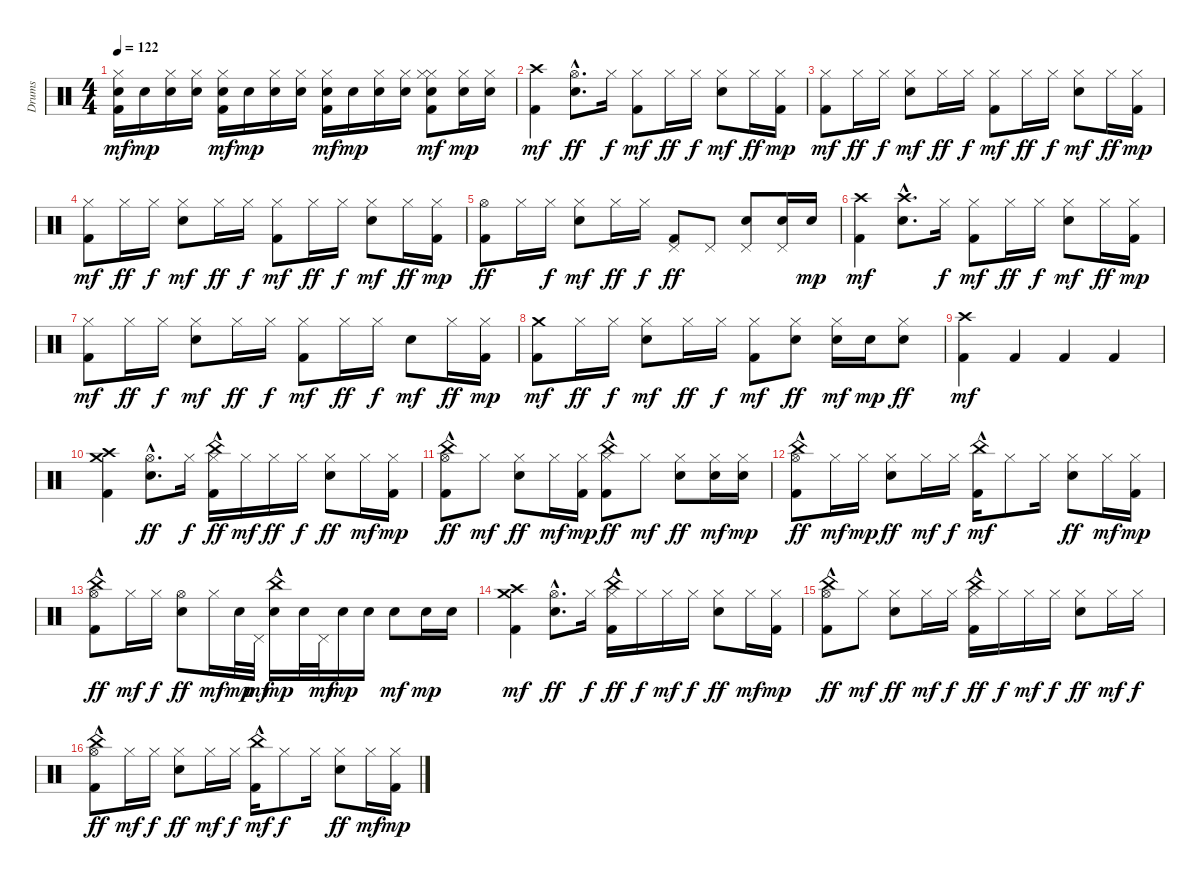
\track ("Drums" "Drums") {instrument percussion}
\staff {score}
\articulation defaults
\ts (4 4)
\tempo 122
\clef neutral
\ks c
("Hi-Hat (closed)" "Snare (hit) 2" "Kick (hit) 2").16{dy mf} "Snare (hit) 2".16{dy mp} ("Snare (hit) 2" "Hi-Hat (closed)").16 ("Hi-Hat (closed)" "Snare (hit) 2").16 ("Hi-Hat (closed)" "Snare (hit) 2" "Kick (hit) 2").16{dy mf} "Snare (hit) 2".16{dy mp} ("Snare (hit) 2" "Hi-Hat (closed)").16 ("Hi-Hat (closed)" "Snare (hit) 2").16 ("Snare (hit) 2" "Hi-Hat (closed)" "Kick (hit) 2").16{dy mf} "Snare (hit) 2".16{dy mp} ("Snare (hit) 2" "Hi-Hat (closed)").16 ("Hi-Hat (closed)" "Snare (hit) 2").16 ("Snare (hit) 2" "Hi-Hat (closed)" "Hi-Hat (closed)" "Kick (hit) 2").8{dy mf} ("Snare (hit) 2" "Hi-Hat (closed)").16{dy mp} ("Hi-Hat (closed)" "Snare (hit) 2").16 |
("Kick (hit) 2" "Crash high (hit)").4{dy mf} ("Snare (hit) 2"{hac} "Hi-Hat (open)"{hac}).8{d dy ff} "Hi-Hat (closed)".16{dy f} ("Kick (hit) 2" "Hi-Hat (closed)").8{dy mf} "Hi-Hat (closed)".16{dy ff} "Hi-Hat (closed)".16{dy f} ("Snare (hit) 2" "Hi-Hat (closed)").8{dy mf} "Hi-Hat (closed)".16{dy ff} ("Kick (hit) 2" "Hi-Hat (closed)").16{dy mp} |
("Kick (hit) 2" "Hi-Hat (closed)").8{dy mf} "Hi-Hat (closed)".16{dy ff} "Hi-Hat (closed)".16{dy f} ("Snare (hit) 2" "Hi-Hat (closed)").8{dy mf} "Hi-Hat (closed)".16{dy ff} "Hi-Hat (closed)".16{dy f} ("Kick (hit) 2" "Hi-Hat (closed)").8{dy mf} "Hi-Hat (closed)".16{dy ff} "Hi-Hat (closed)".16{dy f} ("Snare (hit) 2" "Hi-Hat (closed)").8{dy mf} "Hi-Hat (closed)".16{dy ff} ("Kick (hit) 2" "Hi-Hat (closed)").16{dy mp} |
("Kick (hit) 2" "Hi-Hat (closed)").8{dy mf} "Hi-Hat (closed)".16{dy ff} "Hi-Hat (closed)".16{dy f} ("Snare (hit) 2" "Hi-Hat (closed)").8{dy mf} "Hi-Hat (closed)".16{dy ff} "Hi-Hat (closed)".16{dy f} ("Kick (hit) 2" "Hi-Hat (closed)").8{dy mf} "Hi-Hat (closed)".16{dy ff} "Hi-Hat (closed)".16{dy f} ("Snare (hit) 2" "Hi-Hat (closed)").8{dy mf} "Hi-Hat (closed)".16{dy ff} ("Hi-Hat (closed)" "Kick (hit) 2").16{dy mp} |
("Kick (hit) 2" "Hi-Hat (open)").8{dy ff} "Hi-Hat (closed)".16 "Hi-Hat (closed)".16{dy f} ("Snare (hit) 2" "Hi-Hat (closed)").8{dy mf} "Hi-Hat (closed)".16{dy ff} "Hi-Hat (closed)".16{dy f} ("Kick (hit) 2" "Pedal Hi-Hat (hit)").8{dy ff} "Pedal Hi-Hat (hit)".8 ("Snare (hit) 2" "Pedal Hi-Hat (hit)").8 ("Snare (hit) 2" "Pedal Hi-Hat (hit)").16 "Snare (hit) 2".16{dy mp} |
("Kick (hit) 2" "Crash high (hit)").4{dy mf} ("Snare (hit) 2" "Crash high (hit)"{hac}).8{d} "Hi-Hat (closed)".16{dy f} ("Kick (hit) 2" "Hi-Hat (closed)").8{dy mf} "Hi-Hat (closed)".16{dy ff} "Hi-Hat (closed)".16{dy f} ("Snare (hit) 2" "Hi-Hat (closed)").8{dy mf} "Hi-Hat (closed)".16{dy ff} ("Kick (hit) 2" "Hi-Hat (closed)").16{dy mp} |
("Kick (hit) 2" "Hi-Hat (closed)").8{dy mf} "Hi-Hat (closed)".16{dy ff} "Hi-Hat (closed)".16{dy f} ("Snare (hit) 2" "Hi-Hat (closed)").8{dy mf} "Hi-Hat (closed)".16{dy ff} "Hi-Hat (closed)".16{dy f} ("Kick (hit) 2" "Hi-Hat (closed)").8{dy mf} "Hi-Hat (closed)".16{dy ff} "Hi-Hat (closed)".16{dy f} "Snare (hit) 2".8{dy mf} "Hi-Hat (closed)".16{dy ff} ("Kick (hit) 2" "Hi-Hat (closed)").16{dy mp} |
("Kick (hit) 2" "Crash medium (hit)").8{dy mf} "Hi-Hat (closed)".16{dy ff} "Hi-Hat (closed)".16{dy f} ("Snare (hit) 2" "Hi-Hat (closed)").8{dy mf} "Hi-Hat (closed)".16{dy ff} "Hi-Hat (closed)".16{dy f} ("Kick (hit) 2" "Hi-Hat (closed)").8{dy mf} ("Snare (hit) 2" "Hi-Hat (closed)").8{dy ff} ("Snare (hit) 2" "Hi-Hat (closed)").16{dy mf} "Snare (hit) 2".16{dy mp} ("Snare (hit) 2" "Hi-Hat (closed)").8{dy ff} |
("Kick (hit) 2" "Crash high (hit)").4{dy mf} "Kick (hit) 2".4 "Kick (hit) 2".4 "Kick (hit) 2".4 |
("Kick (hit) 2" "Crash high (hit)" "Crash medium (hit)").4 ("Snare (hit) 2"{hac} "Hi-Hat (open)"{hac}).8{d dy ff} "Hi-Hat (closed)".16{dy f} ("China (hit)"{hac} "Kick (hit) 2" "Hi-Hat (closed)").16{dy ff} "Hi-Hat (closed)".16{dy mf} "Hi-Hat (closed)".16{dy ff} "Hi-Hat (closed)".16{dy f} ("Snare (hit) 2" "Hi-Hat (closed)").8{dy ff} "Hi-Hat (closed)".16{dy mf} ("Hi-Hat (closed)" "Kick (hit) 2").16{dy mp} |
("China (hit)"{hac} "Kick (hit) 2" "Hi-Hat (open)").8{dy ff} "Hi-Hat (closed)".8{dy mf} ("Snare (hit) 2" "Hi-Hat (closed)").8{dy ff} "Hi-Hat (closed)".16{dy mf} ("Hi-Hat (closed)" "Kick (hit) 2").16{dy mp} ("China (hit)"{hac} "Kick (hit) 2" "Hi-Hat (closed)").8{dy ff} "Hi-Hat (closed)".8{dy mf} ("Snare (hit) 2" "Hi-Hat (closed)").8{dy ff} ("Snare (hit) 2" "Hi-Hat (closed)").16{dy mf} ("Snare (hit) 2" "Hi-Hat (closed)").16{dy mp} |
("China (hit)"{hac} "Kick (hit) 2" "Hi-Hat (open)").8{dy ff} "Hi-Hat (closed)".16{dy mf} "Hi-Hat (closed)".16{dy mp} ("Snare (hit) 2" "Hi-Hat (closed)").8{dy ff} "Hi-Hat (closed)".16{dy mf} "Hi-Hat (closed)".16{dy f} ("China (hit)"{hac} "Kick (hit) 2").16{dy mf} "Hi-Hat (closed)".8 "Hi-Hat (closed)".16 ("Snare (hit) 2" "Hi-Hat (closed)").8{dy ff} "Hi-Hat (closed)".16{dy mf} ("Hi-Hat (closed)" "Kick (hit) 2").16{dy mp} |
("China (hit)"{hac} "Kick (hit) 2" "Hi-Hat (open)").8{dy ff} "Hi-Hat (closed)".16{dy mf} "Hi-Hat (closed)".16{dy f} ("Snare (hit) 2" "Hi-Hat (open)").8{dy ff} "Hi-Hat (closed)".16{dy mf} "Snare (hit) 2".32{dy mp} "Pedal Hi-Hat (hit)".32{dy mf} ("China (hit)"{hac} "Snare (hit) 2").16{dy mp} "Snare (hit) 2".32 "Pedal Hi-Hat (hit)".32{dy mf} "Snare (hit) 2".16{dy mp} "Snare (hit) 2".16 "Snare (hit) 2".8{dy mf} "Snare (hit) 2".16{dy mp} "Snare (hit) 2".16 |
("Kick (hit) 2" "Crash medium (hit)" "Crash high (hit)").4{dy mf} ("Snare (hit) 2"{hac} "Hi-Hat (open)"{hac}).8{d dy ff} "Hi-Hat (closed)".16{dy f} ("China (hit)"{hac} "Kick (hit) 2" "Hi-Hat (closed)").16{dy ff} "Hi-Hat (closed)".16{dy f} "Hi-Hat (closed)".16{dy mf} "Hi-Hat (closed)".16{dy f} ("Snare (hit) 2" "Hi-Hat (closed)").8{dy ff} "Hi-Hat (closed)".16{dy mf} ("Hi-Hat (closed)" "Kick (hit) 2").16{dy mp} |
("China (hit)"{hac} "Kick (hit) 2" "Hi-Hat (open)").8{dy ff} "Hi-Hat (closed)".8{dy mf} ("Snare (hit) 2" "Hi-Hat (closed)").8{dy ff} "Hi-Hat (closed)".16{dy mf} "Hi-Hat (closed)".16{dy f} ("China (hit)"{hac} "Kick (hit) 2" "Hi-Hat (closed)").16{dy ff} "Hi-Hat (closed)".16{dy f} "Hi-Hat (closed)".16{dy mf} "Hi-Hat (closed)".16{dy f} ("Snare (hit) 2" "Hi-Hat (closed)").8{dy ff} "Hi-Hat (closed)".16{dy mf} "Hi-Hat (closed)".16{dy f} |
("China (hit)"{hac} "Kick (hit) 2" "Hi-Hat (open)").8{dy ff} "Hi-Hat (closed)".16{dy mf} "Hi-Hat (closed)".16{dy f} ("Snare (hit) 2" "Hi-Hat (closed)").8{dy ff} "Hi-Hat (closed)".16{dy mf} "Hi-Hat (closed)".16{dy f} ("China (hit)"{hac} "Kick (hit) 2").16{dy mf} "Hi-Hat (closed)".8{dy f} "Hi-Hat (closed)".16 ("Snare (hit) 2" "Hi-Hat (closed)").8{dy ff} "Hi-Hat (closed)".16{dy mf} ("Hi-Hat (closed)" "Kick (hit) 2").16{dy mp}
